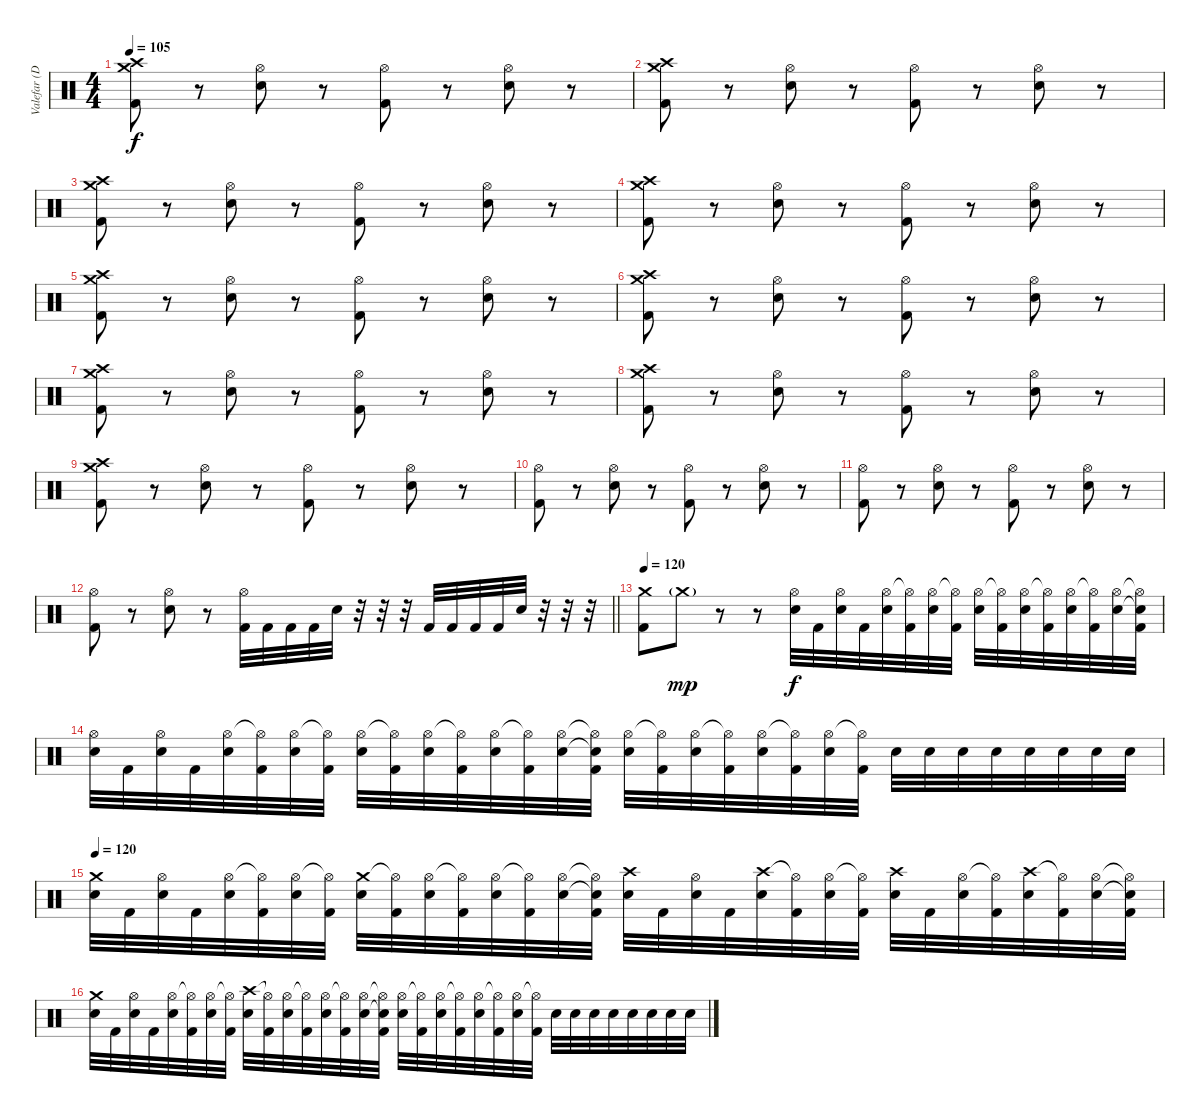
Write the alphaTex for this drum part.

\track ("Valefar (Drums)" "Valefar (D") {instrument percussion}
\staff {score}
\articulation defaults
\ts (4 4)
\tempo 105
\clef neutral
\ks c
("Crash medium (hit)" "Crash high (hit)" "Kick (hit) 2").8{dy f} r.8 ("Hi-Hat (open)" "Electric Snare (hit)").8 r.8 ("Hi-Hat (open)" "Kick (hit) 2").8 r.8 ("Hi-Hat (open)" "Electric Snare (hit)").8 r.8 |
("Crash medium (hit)" "Crash high (hit)" "Kick (hit) 2").8 r.8 ("Hi-Hat (open)" "Electric Snare (hit)").8 r.8 ("Hi-Hat (open)" "Kick (hit) 2").8 r.8 ("Hi-Hat (open)" "Electric Snare (hit)").8 r.8 |
("Crash medium (hit)" "Crash high (hit)" "Kick (hit) 2").8 r.8 ("Hi-Hat (open)" "Electric Snare (hit)").8 r.8 ("Hi-Hat (open)" "Kick (hit) 2").8 r.8 ("Hi-Hat (open)" "Electric Snare (hit)").8 r.8 |
("Crash medium (hit)" "Crash high (hit)" "Kick (hit) 2").8 r.8 ("Hi-Hat (open)" "Electric Snare (hit)").8 r.8 ("Hi-Hat (open)" "Kick (hit) 2").8 r.8 ("Hi-Hat (open)" "Electric Snare (hit)").8 r.8 |
("Crash medium (hit)" "Crash high (hit)" "Kick (hit) 2").8 r.8 ("Hi-Hat (open)" "Electric Snare (hit)").8 r.8 ("Hi-Hat (open)" "Kick (hit) 2").8 r.8 ("Hi-Hat (open)" "Electric Snare (hit)").8 r.8 |
("Crash medium (hit)" "Crash high (hit)" "Kick (hit) 2").8 r.8 ("Hi-Hat (open)" "Electric Snare (hit)").8 r.8 ("Hi-Hat (open)" "Kick (hit) 2").8 r.8 ("Hi-Hat (open)" "Electric Snare (hit)").8 r.8 |
("Crash medium (hit)" "Crash high (hit)" "Kick (hit) 2").8 r.8 ("Hi-Hat (open)" "Electric Snare (hit)").8 r.8 ("Hi-Hat (open)" "Kick (hit) 2").8 r.8 ("Hi-Hat (open)" "Electric Snare (hit)").8 r.8 |
("Crash medium (hit)" "Crash high (hit)" "Kick (hit) 2").8 r.8 ("Hi-Hat (open)" "Electric Snare (hit)").8 r.8 ("Hi-Hat (open)" "Kick (hit) 2").8 r.8 ("Hi-Hat (open)" "Electric Snare (hit)").8 r.8 |
("Crash medium (hit)" "Crash high (hit)" "Kick (hit) 2").8 r.8 ("Hi-Hat (open)" "Electric Snare (hit)").8 r.8 ("Hi-Hat (open)" "Kick (hit) 2").8 r.8 ("Hi-Hat (open)" "Electric Snare (hit)").8 r.8 |
("Hi-Hat (open)" "Kick (hit) 2").8 r.8 ("Hi-Hat (open)" "Electric Snare (hit)").8 r.8 ("Hi-Hat (open)" "Kick (hit) 2").8 r.8 ("Hi-Hat (open)" "Electric Snare (hit)").8 r.8 |
("Hi-Hat (open)" "Kick (hit) 2").8 r.8 ("Hi-Hat (open)" "Electric Snare (hit)").8 r.8 ("Hi-Hat (open)" "Kick (hit) 2").8 r.8 ("Hi-Hat (open)" "Electric Snare (hit)").8 r.8 |
\barLineRight lightlight
("Hi-Hat (open)" "Kick (hit) 2").8 r.8 ("Hi-Hat (open)" "Electric Snare (hit)").8 r.8 ("Hi-Hat (open)" "Kick (hit) 2").32 "Kick (hit) 2".32 "Kick (hit) 2".32 "Kick (hit) 2".32 "Electric Snare (hit)".32 r.32 r.32 r.32 "Kick (hit) 2".32 "Kick (hit) 2".32 "Kick (hit) 2".32 "Kick (hit) 2".32 "Electric Snare (hit)".32 r.32 r.32 r.32 |
\tempo 120
("Crash medium (hit)" "Kick (hit) 2").8 "Crash medium (hit)"{g}.8{dy mp} r.8 r.8 ("Hi-Hat (open)" "Electric Snare (hit)").32{dy f} "Kick (hit) 2".32 ("Hi-Hat (open)" "Electric Snare (hit)").32 "Kick (hit) 2".32 ("Hi-Hat (open)" "Electric Snare (hit)").32 ("Hi-Hat (open)"{t} "Kick (hit) 2").32 ("Hi-Hat (open)" "Electric Snare (hit)").32 ("Hi-Hat (open)"{t} "Kick (hit) 2").32 ("Hi-Hat (open)" "Electric Snare (hit)").32 ("Hi-Hat (open)"{t} "Kick (hit) 2").32 ("Hi-Hat (open)" "Electric Snare (hit)").32 ("Hi-Hat (open)"{t} "Kick (hit) 2").32 ("Hi-Hat (open)" "Electric Snare (hit)").32 ("Hi-Hat (open)"{t} "Kick (hit) 2").32 ("Hi-Hat (open)" "Electric Snare (hit)").32 ("Hi-Hat (open)"{t} "Snare (hit)"{t} "Kick (hit) 2").32 |
("Hi-Hat (open)" "Electric Snare (hit)").32 "Kick (hit) 2".32 ("Hi-Hat (open)" "Electric Snare (hit)").32 "Kick (hit) 2".32 ("Hi-Hat (open)" "Electric Snare (hit)").32 ("Hi-Hat (open)"{t} "Kick (hit) 2").32 ("Hi-Hat (open)" "Electric Snare (hit)").32 ("Hi-Hat (open)"{t} "Kick (hit) 2").32 ("Hi-Hat (open)" "Electric Snare (hit)").32 ("Hi-Hat (open)"{t} "Kick (hit) 2").32 ("Hi-Hat (open)" "Electric Snare (hit)").32 ("Hi-Hat (open)"{t} "Kick (hit) 2").32 ("Hi-Hat (open)" "Electric Snare (hit)").32 ("Hi-Hat (open)"{t} "Kick (hit) 2").32 ("Hi-Hat (open)" "Electric Snare (hit)").32 ("Hi-Hat (open)"{t} "Snare (hit)"{t} "Kick (hit) 2").32 ("Hi-Hat (open)" "Electric Snare (hit)").32 ("Hi-Hat (open)"{t} "Kick (hit) 2").32 ("Hi-Hat (open)" "Electric Snare (hit)").32 ("Hi-Hat (open)"{t} "Kick (hit) 2").32 ("Hi-Hat (open)" "Electric Snare (hit)").32 ("Hi-Hat (open)"{t} "Kick (hit) 2").32 ("Hi-Hat (open)" "Electric Snare (hit)").32 ("Hi-Hat (open)"{t} "Kick (hit) 2").32 "Electric Snare (hit)".32 "Electric Snare (hit)".32 "Electric Snare (hit)".32 "Electric Snare (hit)".32 "Electric Snare (hit)".32 "Electric Snare (hit)".32 "Electric Snare (hit)".32 "Electric Snare (hit)".32 |
\tempo 120
("Crash medium (hit)" "Electric Snare (hit)").32 "Kick (hit) 2".32 ("Hi-Hat (open)" "Electric Snare (hit)").32 "Kick (hit) 2".32 ("Hi-Hat (open)" "Electric Snare (hit)").32 ("Hi-Hat (open)"{t} "Kick (hit) 2").32 ("Hi-Hat (open)" "Electric Snare (hit)").32 ("Hi-Hat (open)"{t} "Kick (hit) 2").32 ("Crash medium (hit)" "Electric Snare (hit)").32 ("Hi-Hat (open)"{t} "Kick (hit) 2").32 ("Hi-Hat (open)" "Electric Snare (hit)").32 ("Hi-Hat (open)"{t} "Kick (hit) 2").32 ("Hi-Hat (open)" "Electric Snare (hit)").32 ("Hi-Hat (open)"{t} "Kick (hit) 2").32 ("Hi-Hat (open)" "Electric Snare (hit)").32 ("Hi-Hat (open)"{t} "Snare (hit)"{t} "Kick (hit) 2").32 ("Crash high (hit)" "Electric Snare (hit)").32 "Kick (hit) 2".32 ("Hi-Hat (open)" "Electric Snare (hit)").32 "Kick (hit) 2".32 ("Crash high (hit)" "Electric Snare (hit)").32 ("Hi-Hat (open)"{t} "Kick (hit) 2").32 ("Hi-Hat (open)" "Electric Snare (hit)").32 ("Hi-Hat (open)"{t} "Kick (hit) 2").32 ("Crash high (hit)" "Electric Snare (hit)").32 "Kick (hit) 2".32 ("Hi-Hat (open)" "Electric Snare (hit)").32 ("Hi-Hat (open)"{t} "Kick (hit) 2").32 ("Crash high (hit)" "Electric Snare (hit)").32 ("Hi-Hat (open)"{t} "Kick (hit) 2").32 ("Hi-Hat (open)" "Electric Snare (hit)").32 ("Hi-Hat (open)"{t} "Snare (hit)"{t} "Kick (hit) 2").32 |
("Crash medium (hit)" "Electric Snare (hit)").32 "Kick (hit) 2".32 ("Hi-Hat (open)" "Electric Snare (hit)").32 "Kick (hit) 2".32 ("Hi-Hat (open)" "Electric Snare (hit)").32 ("Hi-Hat (open)"{t} "Kick (hit) 2").32 ("Hi-Hat (open)" "Electric Snare (hit)").32 ("Hi-Hat (open)"{t} "Kick (hit) 2").32 ("Crash high (hit)" "Electric Snare (hit)").32 ("Hi-Hat (open)"{t} "Kick (hit) 2").32 ("Hi-Hat (open)" "Electric Snare (hit)").32 ("Hi-Hat (open)"{t} "Kick (hit) 2").32 ("Hi-Hat (open)" "Electric Snare (hit)").32 ("Hi-Hat (open)"{t} "Kick (hit) 2").32 ("Hi-Hat (open)" "Electric Snare (hit)").32 ("Hi-Hat (open)"{t} "Snare (hit)"{t} "Kick (hit) 2").32 ("Hi-Hat (open)" "Electric Snare (hit)").32 ("Hi-Hat (open)"{t} "Kick (hit) 2").32 ("Hi-Hat (open)" "Electric Snare (hit)").32 ("Hi-Hat (open)"{t} "Kick (hit) 2").32 ("Hi-Hat (open)" "Electric Snare (hit)").32 ("Hi-Hat (open)"{t} "Kick (hit) 2").32 ("Hi-Hat (open)" "Electric Snare (hit)").32 ("Hi-Hat (open)"{t} "Kick (hit) 2").32 "Electric Snare (hit)".32 "Electric Snare (hit)".32 "Electric Snare (hit)".32 "Electric Snare (hit)".32 "Electric Snare (hit)".32 "Electric Snare (hit)".32 "Electric Snare (hit)".32 "Electric Snare (hit)".32
